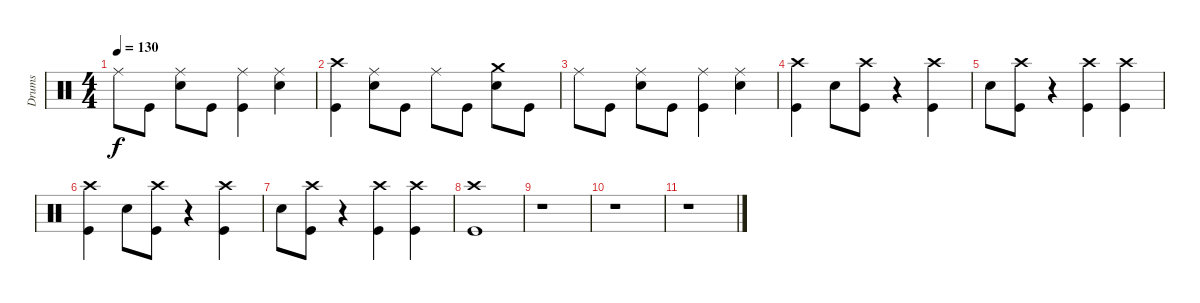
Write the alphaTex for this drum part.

\track ("Drums" "Drums") {instrument percussion}
\staff {score}
\articulation defaults
\ts (4 4)
\tempo 130
\clef neutral
\ks c "Ride (middle)".8{dy f} "Kick (hit)".8
("Ride (middle)" "Snare (hit) 2").8 "Kick (hit)".8 ("Ride (middle)" "Kick (hit)").4 ("Ride (middle)" "Snare (hit) 2").4 |
("Crash high (hit)" "Kick (hit)").4 ("Ride (middle)" "Snare (hit) 2").8 "Kick (hit)".8 "Ride (middle)".8 "Kick (hit)".8 ("Crash medium (hit)" "Snare (hit) 2").8 "Kick (hit)".8 |
"Ride (middle)".8 "Kick (hit)".8 ("Ride (middle)" "Snare (hit) 2").8 "Kick (hit)".8 ("Ride (middle)" "Kick (hit)").4 ("Ride (middle)" "Snare (hit) 2").4 |
("Crash high (hit)" "Kick (hit)").4 "Snare (hit) 2".8 ("Crash high (hit)" "Kick (hit)").8 r.4 ("Crash high (hit)" "Kick (hit)").4 |
"Snare (hit) 2".8 ("Crash high (hit)" "Kick (hit)").8 r.4 ("Crash high (hit)" "Kick (hit)").4 ("Crash high (hit)" "Kick (hit)").4 |
("Crash high (hit)" "Kick (hit)").4 "Snare (hit) 2".8 ("Crash high (hit)" "Kick (hit)").8 r.4 ("Crash high (hit)" "Kick (hit)").4 |
"Snare (hit) 2".8 ("Crash high (hit)" "Kick (hit)").8 r.4 ("Crash high (hit)" "Kick (hit)").4 ("Crash high (hit)" "Kick (hit)").4 |
("Crash high (hit)" "Kick (hit)").1 |
r.1 |
r.1{volume 0} |
r.1
